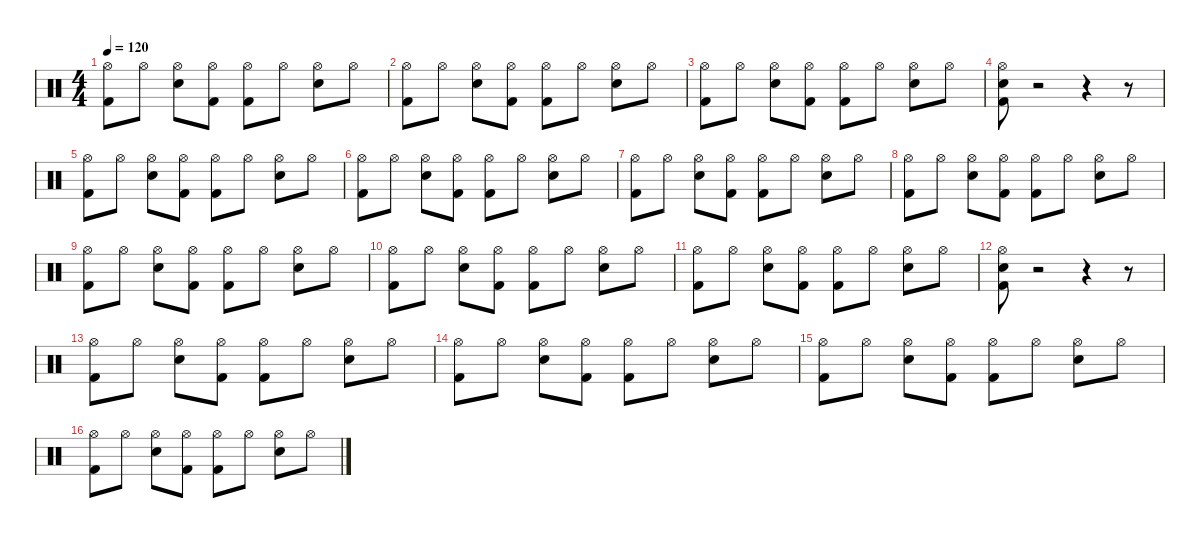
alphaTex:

\defaultSystemsLayout 4
\hideDynamics
\bracketExtendMode nobrackets
\singleTrackTrackNamePolicy hidden
\multiTrackTrackNamePolicy hidden
\firstSystemTrackNameMode fullname
\firstSystemTrackNameOrientation horizontal
\otherSystemsTrackNameOrientation horizontal
\track ("Percussion" "drm.") {instrument percussion}
\staff {score}
\articulation defaults
\ts (4 4)
\tempo 120
\clef neutral
\ks c
("Hi-Hat (open)" "Kick (hit) 2").8{dy f beam Down} "Hi-Hat (open)".8{beam Down} ("Hi-Hat (open)" "Snare (hit) 2").8{beam Down} ("Hi-Hat (open)" "Kick (hit) 2").8{beam Down} ("Hi-Hat (open)" "Kick (hit) 2").8{beam Down} "Hi-Hat (open)".8{beam Down} ("Hi-Hat (open)" "Snare (hit) 2").8{beam Down} "Hi-Hat (open)".8{beam Down} |
("Hi-Hat (open)" "Kick (hit) 2").8{beam Down} "Hi-Hat (open)".8{beam Down} ("Hi-Hat (open)" "Snare (hit) 2").8{beam Down} ("Hi-Hat (open)" "Kick (hit) 2").8{beam Down} ("Hi-Hat (open)" "Kick (hit) 2").8{beam Down} "Hi-Hat (open)".8{beam Down} ("Hi-Hat (open)" "Snare (hit) 2").8{beam Down} "Hi-Hat (open)".8{beam Down} |
("Hi-Hat (open)" "Kick (hit) 2").8{beam Down} "Hi-Hat (open)".8{beam Down} ("Hi-Hat (open)" "Snare (hit) 2").8{beam Down} ("Hi-Hat (open)" "Kick (hit) 2").8{beam Down} ("Hi-Hat (open)" "Kick (hit) 2").8{beam Down} "Hi-Hat (open)".8{beam Down} ("Hi-Hat (open)" "Snare (hit) 2").8{beam Down} "Hi-Hat (open)".8{beam Down} |
("Hi-Hat (open)" "Snare (hit) 2" "Kick (hit) 2").8{beam Down} r.2{beam Down} r.4{beam Down} r.8{beam Down} |
("Hi-Hat (open)" "Kick (hit) 2").8{beam Down} "Hi-Hat (open)".8{beam Down} ("Hi-Hat (open)" "Snare (hit) 2").8{beam Down} ("Hi-Hat (open)" "Kick (hit) 2").8{beam Down} ("Hi-Hat (open)" "Kick (hit) 2").8{beam Down} "Hi-Hat (open)".8{beam Down} ("Hi-Hat (open)" "Snare (hit) 2").8{beam Down} "Hi-Hat (open)".8{beam Down} |
("Hi-Hat (open)" "Kick (hit) 2").8{beam Down} "Hi-Hat (open)".8{beam Down} ("Hi-Hat (open)" "Snare (hit) 2").8{beam Down} ("Hi-Hat (open)" "Kick (hit) 2").8{beam Down} ("Hi-Hat (open)" "Kick (hit) 2").8{beam Down} "Hi-Hat (open)".8{beam Down} ("Hi-Hat (open)" "Snare (hit) 2").8{beam Down} "Hi-Hat (open)".8{beam Down} |
("Hi-Hat (open)" "Kick (hit) 2").8{beam Down} "Hi-Hat (open)".8{beam Down} ("Hi-Hat (open)" "Snare (hit) 2").8{beam Down} ("Hi-Hat (open)" "Kick (hit) 2").8{beam Down} ("Hi-Hat (open)" "Kick (hit) 2").8{beam Down} "Hi-Hat (open)".8{beam Down} ("Hi-Hat (open)" "Snare (hit) 2").8{beam Down} "Hi-Hat (open)".8{beam Down} |
("Hi-Hat (open)" "Kick (hit) 2").8{beam Down} "Hi-Hat (open)".8{beam Down} ("Hi-Hat (open)" "Snare (hit) 2").8{beam Down} ("Hi-Hat (open)" "Kick (hit) 2").8{beam Down} ("Hi-Hat (open)" "Kick (hit) 2").8{beam Down} "Hi-Hat (open)".8{beam Down} ("Hi-Hat (open)" "Snare (hit) 2").8{beam Down} "Hi-Hat (open)".8{beam Down} |
("Hi-Hat (open)" "Kick (hit) 2").8{beam Down} "Hi-Hat (open)".8{beam Down} ("Hi-Hat (open)" "Snare (hit) 2").8{beam Down} ("Hi-Hat (open)" "Kick (hit) 2").8{beam Down} ("Hi-Hat (open)" "Kick (hit) 2").8{beam Down} "Hi-Hat (open)".8{beam Down} ("Hi-Hat (open)" "Snare (hit) 2").8{beam Down} "Hi-Hat (open)".8{beam Down} |
("Hi-Hat (open)" "Kick (hit) 2").8{beam Down} "Hi-Hat (open)".8{beam Down} ("Hi-Hat (open)" "Snare (hit) 2").8{beam Down} ("Hi-Hat (open)" "Kick (hit) 2").8{beam Down} ("Hi-Hat (open)" "Kick (hit) 2").8{beam Down} "Hi-Hat (open)".8{beam Down} ("Hi-Hat (open)" "Snare (hit) 2").8{beam Down} "Hi-Hat (open)".8{beam Down} |
("Hi-Hat (open)" "Kick (hit) 2").8{beam Down} "Hi-Hat (open)".8{beam Down} ("Hi-Hat (open)" "Snare (hit) 2").8{beam Down} ("Hi-Hat (open)" "Kick (hit) 2").8{beam Down} ("Hi-Hat (open)" "Kick (hit) 2").8{beam Down} "Hi-Hat (open)".8{beam Down} ("Hi-Hat (open)" "Snare (hit) 2").8{beam Down} "Hi-Hat (open)".8{beam Down} |
("Hi-Hat (open)" "Snare (hit) 2" "Kick (hit) 2").8{beam Down} r.2{beam Down} r.4{beam Down} r.8{beam Down} |
("Hi-Hat (open)" "Kick (hit) 2").8{beam Down} "Hi-Hat (open)".8{beam Down} ("Hi-Hat (open)" "Snare (hit) 2").8{beam Down} ("Hi-Hat (open)" "Kick (hit) 2").8{beam Down} ("Hi-Hat (open)" "Kick (hit) 2").8{beam Down} "Hi-Hat (open)".8{beam Down} ("Hi-Hat (open)" "Snare (hit) 2").8{beam Down} "Hi-Hat (open)".8{beam Down} |
("Hi-Hat (open)" "Kick (hit) 2").8{beam Down} "Hi-Hat (open)".8{beam Down} ("Hi-Hat (open)" "Snare (hit) 2").8{beam Down} ("Hi-Hat (open)" "Kick (hit) 2").8{beam Down} ("Hi-Hat (open)" "Kick (hit) 2").8{beam Down} "Hi-Hat (open)".8{beam Down} ("Hi-Hat (open)" "Snare (hit) 2").8{beam Down} "Hi-Hat (open)".8{beam Down} |
("Hi-Hat (open)" "Kick (hit) 2").8{beam Down} "Hi-Hat (open)".8{beam Down} ("Hi-Hat (open)" "Snare (hit) 2").8{beam Down} ("Hi-Hat (open)" "Kick (hit) 2").8{beam Down} ("Hi-Hat (open)" "Kick (hit) 2").8{beam Down} "Hi-Hat (open)".8{beam Down} ("Hi-Hat (open)" "Snare (hit) 2").8{beam Down} "Hi-Hat (open)".8{beam Down} |
("Hi-Hat (open)" "Kick (hit) 2").8{beam Down} "Hi-Hat (open)".8{beam Down} ("Hi-Hat (open)" "Snare (hit) 2").8{beam Down} ("Hi-Hat (open)" "Kick (hit) 2").8{beam Down} ("Hi-Hat (open)" "Kick (hit) 2").8{beam Down} "Hi-Hat (open)".8{beam Down} ("Hi-Hat (open)" "Snare (hit) 2").8{beam Down} "Hi-Hat (open)".8{beam Down}
